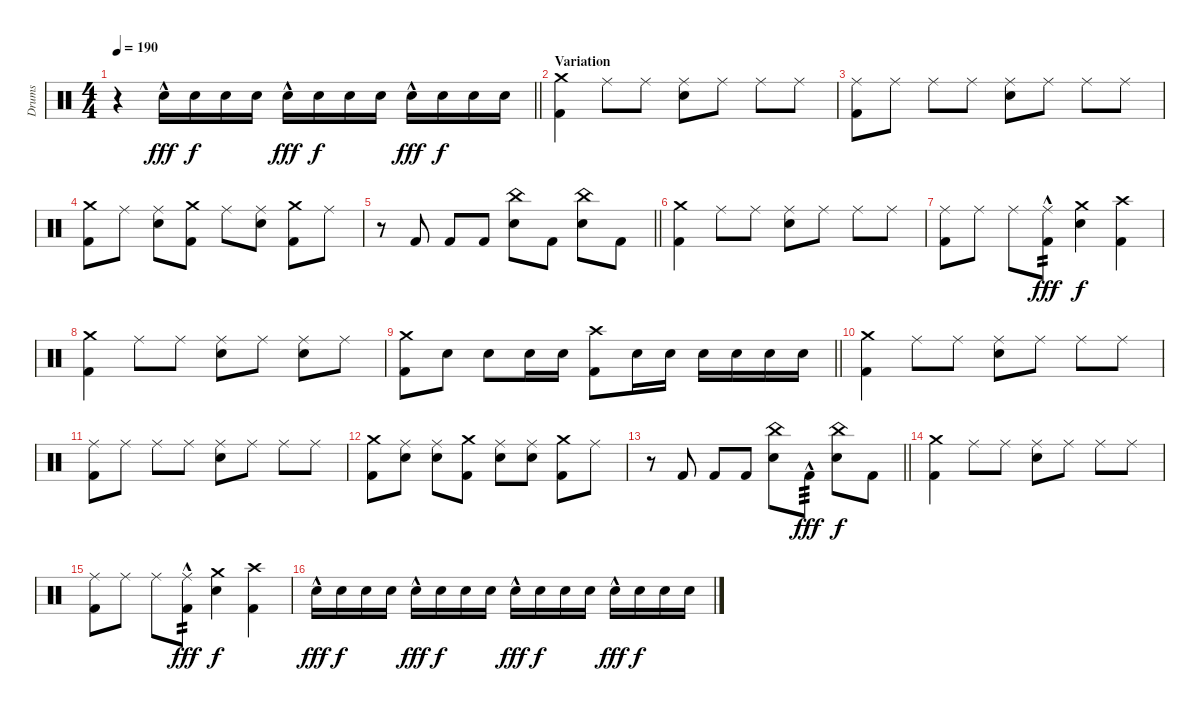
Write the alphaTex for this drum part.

\track ("Drums" "Drums") {instrument percussion}
\staff {score}
\articulation defaults
\ts (4 4)
\tempo 190
\clef neutral
\barLineRight lightlight
\ks c
r.4{dy f} "Snare (hit) 2"{hac}.16{dy fff} "Snare (hit) 2".16{dy f} "Snare (hit) 2".16 "Snare (hit) 2".16 "Snare (hit) 2"{hac}.16{dy fff} "Snare (hit) 2".16{dy f} "Snare (hit) 2".16 "Snare (hit) 2".16 "Snare (hit) 2"{hac}.16{dy fff} "Snare (hit) 2".16{dy f} "Snare (hit) 2".16 "Snare (hit) 2".16 |
\section ("" "Variation")
("Kick (hit) 2" "Crash medium (hit)").4 "Ride (middle)".8 "Ride (middle)".8 ("Snare (hit) 2" "Ride (middle)").8 "Ride (middle)".8 "Ride (middle)".8 "Ride (middle)".8 |
("Kick (hit) 2" "Ride (middle)").8 "Ride (middle)".8 "Ride (middle)".8 "Ride (middle)".8 ("Snare (hit) 2" "Ride (middle)").8 "Ride (middle)".8 "Ride (middle)".8 "Ride (middle)".8 |
("Kick (hit) 2" "Crash medium (hit)").8 "Ride (middle)".8 ("Snare (hit) 2" "Ride (middle)").8 ("Kick (hit) 2" "Crash medium (hit)").8 "Ride (middle)".8 ("Snare (hit) 2" "Ride (middle)").8 ("Kick (hit) 2" "Crash medium (hit)").8 "Ride (middle)".8 |
\barLineRight lightlight
r.8 "Kick (hit) 2".8 "Kick (hit) 2".8 "Kick (hit) 2".8 ("Snare (hit) 2" "China (hit)").8 "Kick (hit) 2".8 ("Snare (hit) 2" "China (hit)").8 "Kick (hit) 2".8 |
("Kick (hit) 2" "Crash medium (hit)").4 "Ride (middle)".8 "Ride (middle)".8 ("Snare (hit) 2" "Ride (middle)").8 "Ride (middle)".8 "Ride (middle)".8 "Ride (middle)".8 |
("Kick (hit) 2" "Ride (middle)").8 "Ride (middle)".8 "Ride (middle)".8 ("Kick (hit) 2"{hac} "Ride (middle)").8{tp 2 dy fff} ("Snare (hit) 2" "Crash medium (hit)").4{dy f} ("Kick (hit) 2" "Crash high (hit)").4 |
("Kick (hit) 2" "Crash medium (hit)").4 "Ride (middle)".8 "Ride (middle)".8 ("Snare (hit) 2" "Ride (middle)").8 "Ride (middle)".8 ("Snare (hit) 2" "Ride (middle)").8 "Ride (middle)".8 |
\barLineRight lightlight
("Kick (hit) 2" "Crash medium (hit)").8 "Snare (hit) 2".8 "Snare (hit) 2".8 "Snare (hit) 2".16 "Snare (hit) 2".16 ("Kick (hit) 2" "Crash high (hit)").8 "Snare (hit) 2".16 "Snare (hit) 2".16 "Snare (hit) 2".16 "Snare (hit) 2".16 "Snare (hit) 2".16 "Snare (hit) 2".16 |
\section ("" "")
("Kick (hit) 2" "Crash medium (hit)").4 "Ride (middle)".8 "Ride (middle)".8 ("Snare (hit) 2" "Ride (middle)").8 "Ride (middle)".8 "Ride (middle)".8 "Ride (middle)".8 |
("Kick (hit) 2" "Ride (middle)").8 "Ride (middle)".8 "Ride (middle)".8 "Ride (middle)".8 ("Snare (hit) 2" "Ride (middle)").8 "Ride (middle)".8 "Ride (middle)".8 "Ride (middle)".8 |
("Kick (hit) 2" "Crash medium (hit)").8 ("Snare (hit) 2" "Ride (middle)").8 ("Snare (hit) 2" "Ride (middle)").8 ("Kick (hit) 2" "Crash medium (hit)").8 ("Snare (hit) 2" "Ride (middle)").8 ("Snare (hit) 2" "Ride (middle)").8 ("Kick (hit) 2" "Crash medium (hit)").8 "Ride (middle)".8 |
\barLineRight lightlight
r.8 "Kick (hit) 2".8 "Kick (hit) 2".8 "Kick (hit) 2".8 ("Snare (hit) 2" "China (hit)").8 "Kick (hit) 2"{hac}.8{tp 3 dy fff} ("Snare (hit) 2" "China (hit)").8{dy f} "Kick (hit) 2".8 |
("Kick (hit) 2" "Crash medium (hit)").4 "Ride (middle)".8 "Ride (middle)".8 ("Snare (hit) 2" "Ride (middle)").8 "Ride (middle)".8 "Ride (middle)".8 "Ride (middle)".8 |
("Kick (hit) 2" "Ride (middle)").8 "Ride (middle)".8 "Ride (middle)".8 ("Kick (hit) 2"{hac} "Ride (middle)").8{tp 2 dy fff} ("Snare (hit) 2" "Crash medium (hit)").4{dy f} ("Kick (hit) 2" "Crash high (hit)").4 |
"Snare (hit) 2"{hac}.16{dy fff} "Snare (hit) 2".16{dy f} "Snare (hit) 2".16 "Snare (hit) 2".16 "Snare (hit) 2"{hac}.16{dy fff} "Snare (hit) 2".16{dy f} "Snare (hit) 2".16 "Snare (hit) 2".16 "Snare (hit) 2"{hac}.16{dy fff} "Snare (hit) 2".16{dy f} "Snare (hit) 2".16 "Snare (hit) 2".16 "Snare (hit) 2"{hac}.16{dy fff} "Snare (hit) 2".16{dy f} "Snare (hit) 2".16 "Snare (hit) 2".16
